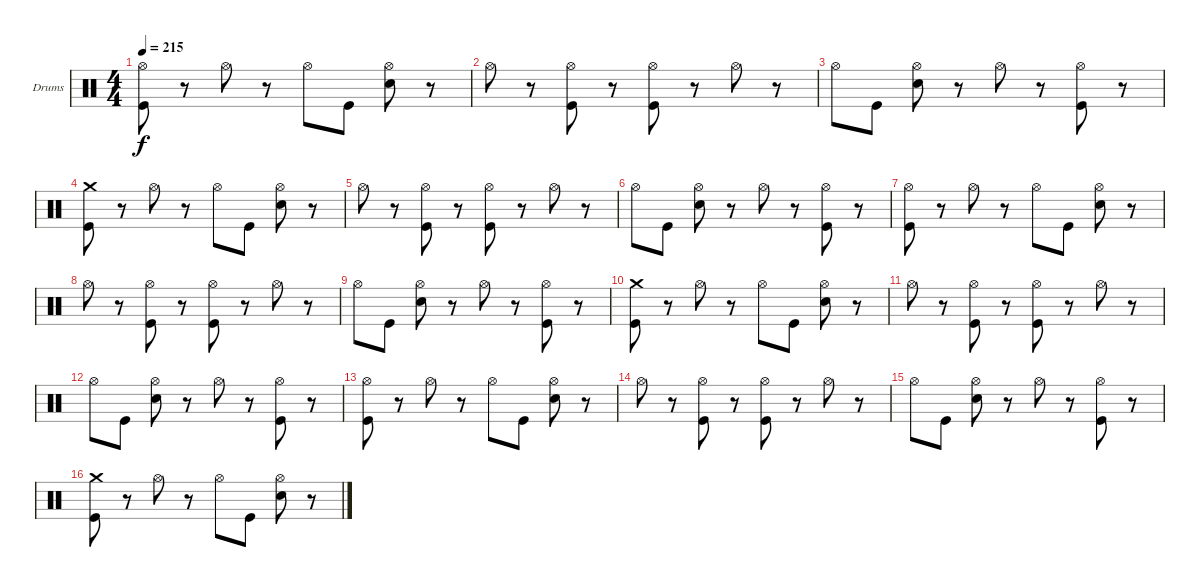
\bracketExtendMode groupsimilarinstruments
\firstSystemTrackNameOrientation horizontal
\otherSystemsTrackNameOrientation horizontal
\track ("Drumkit (Christoph)" "Drums") {instrument percussion}
\staff {score}
\articulation defaults
\ts (4 4)
\tempo 215
\clef neutral
\ks c
("Hi-Hat (open)" "Kick (hit)").8{dy f} r.8 "Hi-Hat (open)".8 r.8 "Hi-Hat (open)".8 "Kick (hit)".8 ("Hi-Hat (open)" "Snare (hit) 2").8 r.8 |
"Hi-Hat (open)".8 r.8 ("Hi-Hat (open)" "Kick (hit)").8 r.8 ("Hi-Hat (open)" "Kick (hit)").8 r.8 "Hi-Hat (open)".8 r.8 |
"Hi-Hat (open)".8 "Kick (hit)".8 ("Hi-Hat (open)" "Snare (hit) 2").8 r.8 "Hi-Hat (open)".8 r.8 ("Hi-Hat (open)" "Kick (hit)").8 r.8 |
("Crash medium (hit)" "Kick (hit)").8 r.8 "Hi-Hat (open)".8 r.8 "Hi-Hat (open)".8 "Kick (hit)".8 ("Hi-Hat (open)" "Snare (hit) 2").8 r.8 |
"Hi-Hat (open)".8 r.8 ("Hi-Hat (open)" "Kick (hit)").8 r.8 ("Hi-Hat (open)" "Kick (hit)").8 r.8 "Hi-Hat (open)".8 r.8 |
"Hi-Hat (open)".8 "Kick (hit)".8 ("Hi-Hat (open)" "Snare (hit) 2").8 r.8 "Hi-Hat (open)".8 r.8 ("Hi-Hat (open)" "Kick (hit)").8 r.8 |
("Hi-Hat (open)" "Kick (hit)").8 r.8 "Hi-Hat (open)".8 r.8 "Hi-Hat (open)".8 "Kick (hit)".8 ("Hi-Hat (open)" "Snare (hit) 2").8 r.8 |
"Hi-Hat (open)".8 r.8 ("Hi-Hat (open)" "Kick (hit)").8 r.8 ("Hi-Hat (open)" "Kick (hit)").8 r.8 "Hi-Hat (open)".8 r.8 |
"Hi-Hat (open)".8 "Kick (hit)".8 ("Hi-Hat (open)" "Snare (hit) 2").8 r.8 "Hi-Hat (open)".8 r.8 ("Hi-Hat (open)" "Kick (hit)").8 r.8 |
("Crash medium (hit)" "Kick (hit)").8 r.8 "Hi-Hat (open)".8 r.8 "Hi-Hat (open)".8 "Kick (hit)".8 ("Hi-Hat (open)" "Snare (hit) 2").8 r.8 |
"Hi-Hat (open)".8 r.8 ("Hi-Hat (open)" "Kick (hit)").8 r.8 ("Hi-Hat (open)" "Kick (hit)").8 r.8 "Hi-Hat (open)".8 r.8 |
"Hi-Hat (open)".8 "Kick (hit)".8 ("Hi-Hat (open)" "Snare (hit) 2").8 r.8 "Hi-Hat (open)".8 r.8 ("Hi-Hat (open)" "Kick (hit)").8 r.8 |
("Hi-Hat (open)" "Kick (hit)").8 r.8 "Hi-Hat (open)".8 r.8 "Hi-Hat (open)".8 "Kick (hit)".8 ("Hi-Hat (open)" "Snare (hit) 2").8 r.8 |
"Hi-Hat (open)".8 r.8 ("Hi-Hat (open)" "Kick (hit)").8 r.8 ("Hi-Hat (open)" "Kick (hit)").8 r.8 "Hi-Hat (open)".8 r.8 |
"Hi-Hat (open)".8 "Kick (hit)".8 ("Hi-Hat (open)" "Snare (hit) 2").8 r.8 "Hi-Hat (open)".8 r.8 ("Hi-Hat (open)" "Kick (hit)").8 r.8 |
("Crash medium (hit)" "Kick (hit)").8 r.8 "Hi-Hat (open)".8 r.8 "Hi-Hat (open)".8 "Kick (hit)".8 ("Hi-Hat (open)" "Snare (hit) 2").8 r.8
